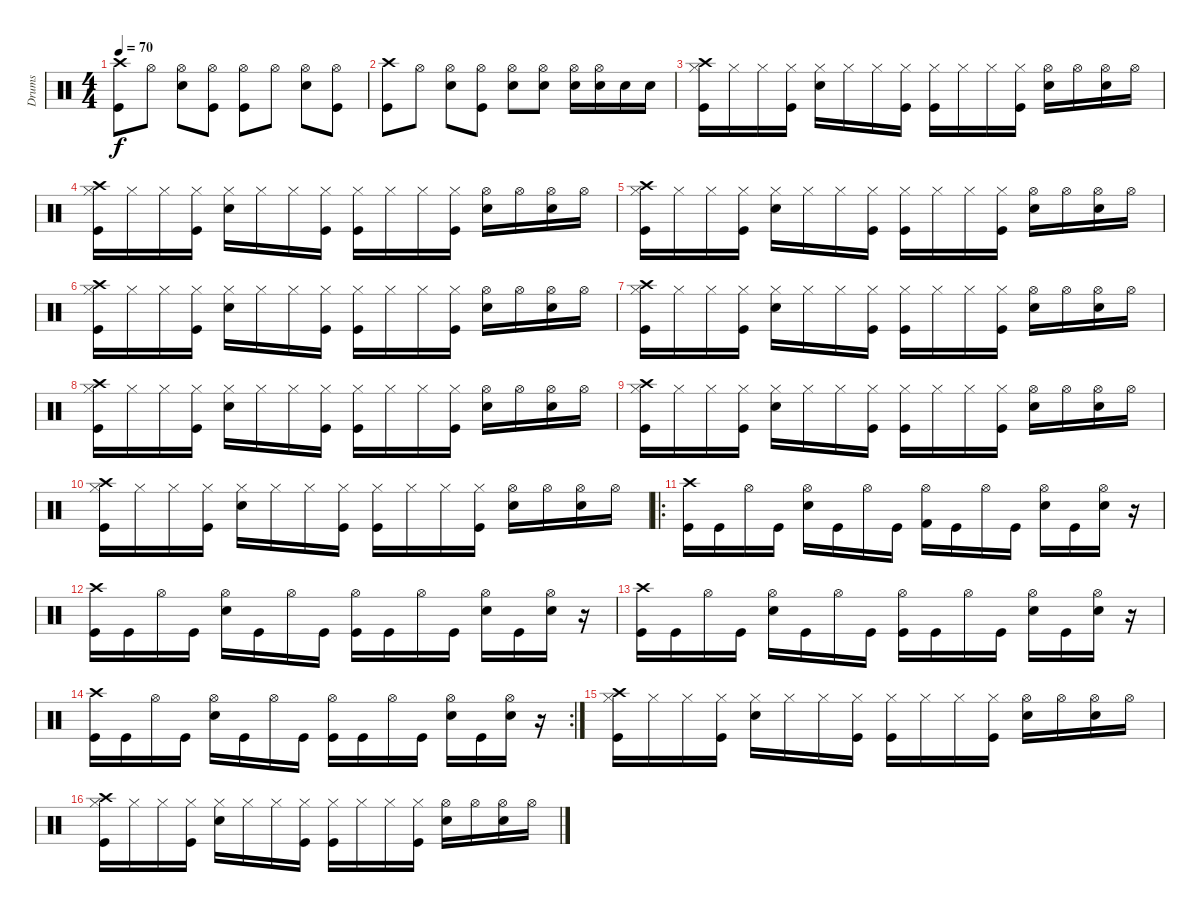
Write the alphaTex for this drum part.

\track ("Drums" "Drums") {instrument percussion}
\staff {score}
\articulation defaults
\ts (4 4)
\tempo 70
\clef neutral
\ks c
("Crash high (hit)" "Kick (hit)").8{dy f} "Hi-Hat (open)".8 ("Hi-Hat (open)" "Electric Snare (hit)").8 ("Hi-Hat (open)" "Kick (hit)").8 ("Hi-Hat (open)" "Kick (hit)").8 "Hi-Hat (open)".8 ("Hi-Hat (open)" "Electric Snare (hit)").8 ("Hi-Hat (open)" "Kick (hit)").8 |
("Crash high (hit)" "Kick (hit)").8 "Hi-Hat (open)".8 ("Hi-Hat (open)" "Electric Snare (hit)").8 ("Hi-Hat (open)" "Kick (hit)").8 ("Hi-Hat (open)" "Electric Snare (hit)").8 ("Hi-Hat (open)" "Electric Snare (hit)").8 ("Hi-Hat (open)" "Electric Snare (hit)").16 ("Hi-Hat (open)" "Electric Snare (hit)").16 "Electric Snare (hit)".16 "Electric Snare (hit)".16 |
("Crash high (hit)" "Hi-Hat (closed)" "Kick (hit)").16 "Hi-Hat (closed)".16 "Hi-Hat (closed)".16 ("Hi-Hat (closed)" "Kick (hit)").16 ("Hi-Hat (closed)" "Electric Snare (hit)").16 "Hi-Hat (closed)".16 "Hi-Hat (closed)".16 ("Hi-Hat (closed)" "Kick (hit)").16 ("Hi-Hat (closed)" "Kick (hit)").16 "Hi-Hat (closed)".16 "Hi-Hat (closed)".16 ("Hi-Hat (closed)" "Kick (hit)").16 ("Hi-Hat (open)" "Electric Snare (hit)").16 "Hi-Hat (open)".16 ("Hi-Hat (open)" "Electric Snare (hit)").16 "Hi-Hat (open)".16 |
("Crash high (hit)" "Hi-Hat (closed)" "Kick (hit)").16 "Hi-Hat (closed)".16 "Hi-Hat (closed)".16 ("Hi-Hat (closed)" "Kick (hit)").16 ("Hi-Hat (closed)" "Electric Snare (hit)").16 "Hi-Hat (closed)".16 "Hi-Hat (closed)".16 ("Hi-Hat (closed)" "Kick (hit)").16 ("Hi-Hat (closed)" "Kick (hit)").16 "Hi-Hat (closed)".16 "Hi-Hat (closed)".16 ("Hi-Hat (closed)" "Kick (hit)").16 ("Hi-Hat (open)" "Electric Snare (hit)").16 "Hi-Hat (open)".16 ("Hi-Hat (open)" "Electric Snare (hit)").16 "Hi-Hat (open)".16 |
("Crash high (hit)" "Hi-Hat (closed)" "Kick (hit)").16 "Hi-Hat (closed)".16 "Hi-Hat (closed)".16 ("Hi-Hat (closed)" "Kick (hit)").16 ("Hi-Hat (closed)" "Electric Snare (hit)").16 "Hi-Hat (closed)".16 "Hi-Hat (closed)".16 ("Hi-Hat (closed)" "Kick (hit)").16 ("Hi-Hat (closed)" "Kick (hit)").16 "Hi-Hat (closed)".16 "Hi-Hat (closed)".16 ("Hi-Hat (closed)" "Kick (hit)").16 ("Hi-Hat (open)" "Electric Snare (hit)").16 "Hi-Hat (open)".16 ("Hi-Hat (open)" "Electric Snare (hit)").16 "Hi-Hat (open)".16 |
("Crash high (hit)" "Hi-Hat (closed)" "Kick (hit)").16 "Hi-Hat (closed)".16 "Hi-Hat (closed)".16 ("Hi-Hat (closed)" "Kick (hit)").16 ("Hi-Hat (closed)" "Electric Snare (hit)").16 "Hi-Hat (closed)".16 "Hi-Hat (closed)".16 ("Hi-Hat (closed)" "Kick (hit)").16 ("Hi-Hat (closed)" "Kick (hit)").16 "Hi-Hat (closed)".16 "Hi-Hat (closed)".16 ("Hi-Hat (closed)" "Kick (hit)").16 ("Hi-Hat (open)" "Electric Snare (hit)").16 "Hi-Hat (open)".16 ("Hi-Hat (open)" "Electric Snare (hit)").16 "Hi-Hat (open)".16 |
("Crash high (hit)" "Hi-Hat (closed)" "Kick (hit)").16 "Hi-Hat (closed)".16 "Hi-Hat (closed)".16 ("Hi-Hat (closed)" "Kick (hit)").16 ("Hi-Hat (closed)" "Electric Snare (hit)").16 "Hi-Hat (closed)".16 "Hi-Hat (closed)".16 ("Hi-Hat (closed)" "Kick (hit)").16 ("Hi-Hat (closed)" "Kick (hit)").16 "Hi-Hat (closed)".16 "Hi-Hat (closed)".16 ("Hi-Hat (closed)" "Kick (hit)").16 ("Hi-Hat (open)" "Electric Snare (hit)").16 "Hi-Hat (open)".16 ("Hi-Hat (open)" "Electric Snare (hit)").16 "Hi-Hat (open)".16 |
("Crash high (hit)" "Hi-Hat (closed)" "Kick (hit)").16 "Hi-Hat (closed)".16 "Hi-Hat (closed)".16 ("Hi-Hat (closed)" "Kick (hit)").16 ("Hi-Hat (closed)" "Electric Snare (hit)").16 "Hi-Hat (closed)".16 "Hi-Hat (closed)".16 ("Hi-Hat (closed)" "Kick (hit)").16 ("Hi-Hat (closed)" "Kick (hit)").16 "Hi-Hat (closed)".16 "Hi-Hat (closed)".16 ("Hi-Hat (closed)" "Kick (hit)").16 ("Hi-Hat (open)" "Electric Snare (hit)").16 "Hi-Hat (open)".16 ("Hi-Hat (open)" "Electric Snare (hit)").16 "Hi-Hat (open)".16 |
("Crash high (hit)" "Hi-Hat (closed)" "Kick (hit)").16 "Hi-Hat (closed)".16 "Hi-Hat (closed)".16 ("Hi-Hat (closed)" "Kick (hit)").16 ("Hi-Hat (closed)" "Electric Snare (hit)").16 "Hi-Hat (closed)".16 "Hi-Hat (closed)".16 ("Hi-Hat (closed)" "Kick (hit)").16 ("Hi-Hat (closed)" "Kick (hit)").16 "Hi-Hat (closed)".16 "Hi-Hat (closed)".16 ("Hi-Hat (closed)" "Kick (hit)").16 ("Hi-Hat (open)" "Electric Snare (hit)").16 "Hi-Hat (open)".16 ("Hi-Hat (open)" "Electric Snare (hit)").16 "Hi-Hat (open)".16 |
("Crash high (hit)" "Hi-Hat (closed)" "Kick (hit)").16 "Hi-Hat (closed)".16 "Hi-Hat (closed)".16 ("Hi-Hat (closed)" "Kick (hit)").16 ("Hi-Hat (closed)" "Electric Snare (hit)").16 "Hi-Hat (closed)".16 "Hi-Hat (closed)".16 ("Hi-Hat (closed)" "Kick (hit)").16 ("Hi-Hat (closed)" "Kick (hit)").16 "Hi-Hat (closed)".16 "Hi-Hat (closed)".16 ("Hi-Hat (closed)" "Kick (hit)").16 ("Hi-Hat (open)" "Electric Snare (hit)").16 "Hi-Hat (open)".16 ("Hi-Hat (open)" "Electric Snare (hit)").16 "Hi-Hat (open)".16 |
\ro
("Crash high (hit)" "Kick (hit)").16 "Kick (hit)".16 "Hi-Hat (open)".16 "Kick (hit)".16 ("Hi-Hat (open)" "Electric Snare (hit)").16 "Kick (hit)".16 "Hi-Hat (open)".16 "Kick (hit)".16 ("Hi-Hat (open)" "Kick (hit) 2").16 "Kick (hit)".16 "Hi-Hat (open)".16 "Kick (hit)".16 ("Hi-Hat (open)" "Electric Snare (hit)").16 "Kick (hit)".16 ("Hi-Hat (open)" "Electric Snare (hit)").16 r.16 |
("Crash high (hit)" "Kick (hit)").16 "Kick (hit)".16 "Hi-Hat (open)".16 "Kick (hit)".16 ("Hi-Hat (open)" "Electric Snare (hit)").16 "Kick (hit)".16 "Hi-Hat (open)".16 "Kick (hit)".16 ("Hi-Hat (open)" "Kick (hit)").16 "Kick (hit)".16 "Hi-Hat (open)".16 "Kick (hit)".16 ("Hi-Hat (open)" "Electric Snare (hit)").16 "Kick (hit)".16 ("Hi-Hat (open)" "Electric Snare (hit)").16 r.16 |
("Crash high (hit)" "Kick (hit)").16 "Kick (hit)".16 "Hi-Hat (open)".16 "Kick (hit)".16 ("Hi-Hat (open)" "Electric Snare (hit)").16 "Kick (hit)".16 "Hi-Hat (open)".16 "Kick (hit)".16 ("Hi-Hat (open)" "Kick (hit)").16 "Kick (hit)".16 "Hi-Hat (open)".16 "Kick (hit)".16 ("Hi-Hat (open)" "Electric Snare (hit)").16 "Kick (hit)".16 ("Hi-Hat (open)" "Electric Snare (hit)").16 r.16 |
\rc 2
("Crash high (hit)" "Kick (hit)").16 "Kick (hit)".16 "Hi-Hat (open)".16 "Kick (hit)".16 ("Hi-Hat (open)" "Electric Snare (hit)").16 "Kick (hit)".16 "Hi-Hat (open)".16 "Kick (hit)".16 ("Hi-Hat (open)" "Kick (hit)").16 "Kick (hit)".16 "Hi-Hat (open)".16 "Kick (hit)".16 ("Hi-Hat (open)" "Electric Snare (hit)").16 "Kick (hit)".16 ("Hi-Hat (open)" "Electric Snare (hit)").16 r.16 |
("Crash high (hit)" "Hi-Hat (closed)" "Kick (hit)").16 "Hi-Hat (closed)".16 "Hi-Hat (closed)".16 ("Hi-Hat (closed)" "Kick (hit)").16 ("Hi-Hat (closed)" "Electric Snare (hit)").16 "Hi-Hat (closed)".16 "Hi-Hat (closed)".16 ("Hi-Hat (closed)" "Kick (hit)").16 ("Hi-Hat (closed)" "Kick (hit)").16 "Hi-Hat (closed)".16 "Hi-Hat (closed)".16 ("Hi-Hat (closed)" "Kick (hit)").16 ("Hi-Hat (open)" "Electric Snare (hit)").16 "Hi-Hat (open)".16 ("Hi-Hat (open)" "Electric Snare (hit)").16 "Hi-Hat (open)".16 |
("Crash high (hit)" "Hi-Hat (closed)" "Kick (hit)").16 "Hi-Hat (closed)".16 "Hi-Hat (closed)".16 ("Hi-Hat (closed)" "Kick (hit)").16 ("Hi-Hat (closed)" "Electric Snare (hit)").16 "Hi-Hat (closed)".16 "Hi-Hat (closed)".16 ("Hi-Hat (closed)" "Kick (hit)").16 ("Hi-Hat (closed)" "Kick (hit)").16 "Hi-Hat (closed)".16 "Hi-Hat (closed)".16 ("Hi-Hat (closed)" "Kick (hit)").16 ("Hi-Hat (open)" "Electric Snare (hit)").16 "Hi-Hat (open)".16 ("Hi-Hat (open)" "Electric Snare (hit)").16 "Hi-Hat (open)".16
